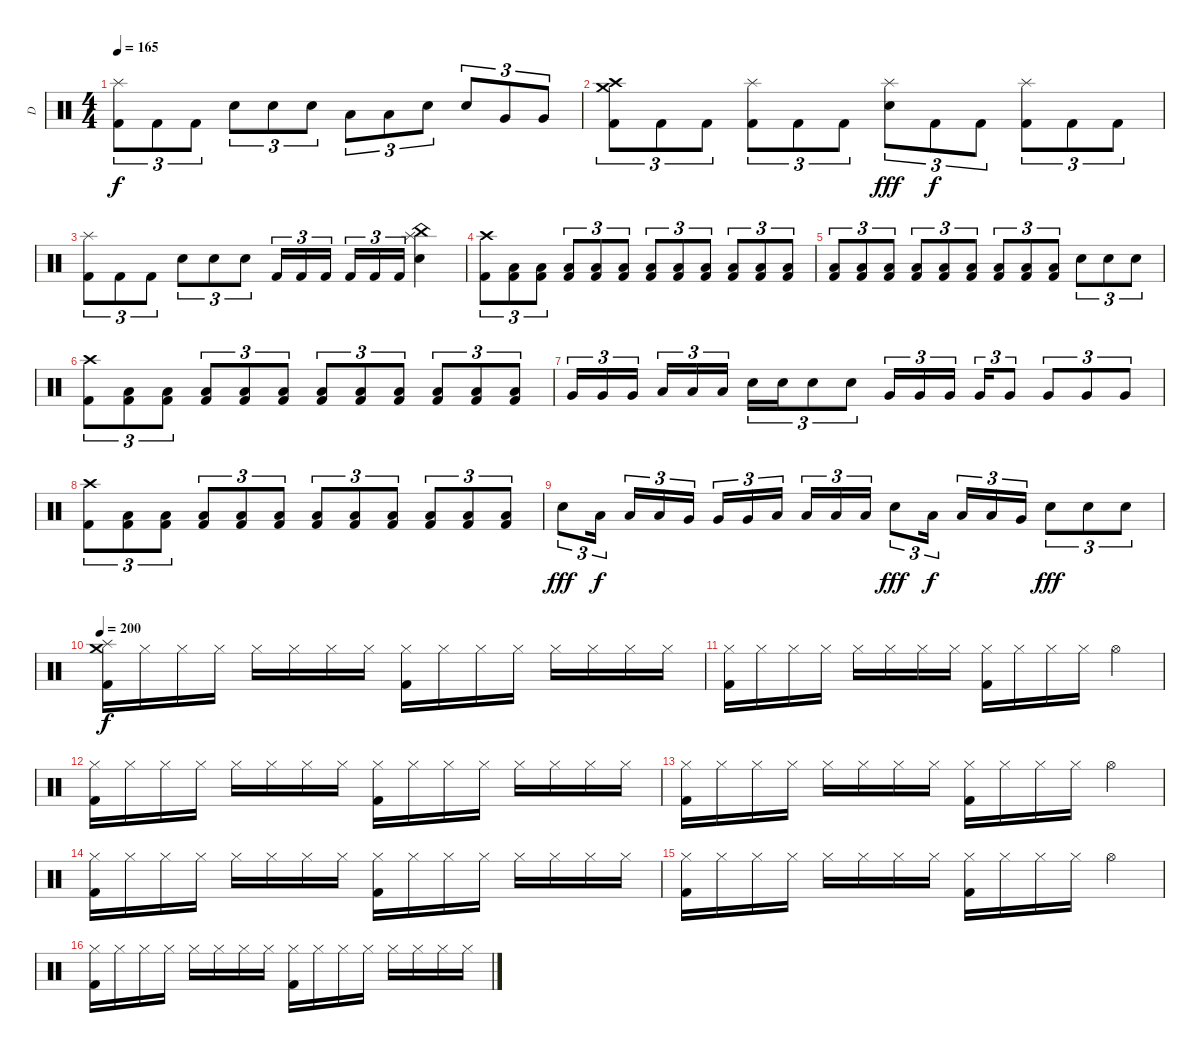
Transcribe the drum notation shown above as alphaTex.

\track ("D" "D") {instrument percussion}
\staff {score}
\articulation defaults
\ts (4 4)
\tempo 165
\clef neutral
\ks c
("Splash (hit)" "Kick (hit) 2").8{tu (3 2) dy f} "Kick (hit) 2".8{tu (3 2)} "Kick (hit) 2".8{tu (3 2)} "Electric Snare (hit)".8{tu (3 2)} "Electric Snare (hit)".8{tu (3 2)} "Electric Snare (hit)".8{tu (3 2)} "Low Tom (hit)".8{tu (3 2)} "Low Tom (hit)".8{tu (3 2)} "Electric Snare (hit)".8{tu (3 2)} "Electric Snare (hit)".8{tu (3 2)} "Very Low Tom (hit)".8{tu (3 2)} "Very Low Tom (hit)".8{tu (3 2)} |
("Crash medium (hit)" "Crash high (hit)" "Kick (hit) 2").8{tu (3 2)} "Kick (hit) 2".8{tu (3 2)} "Kick (hit) 2".8{tu (3 2)} ("Splash (hit)" "Kick (hit) 2").8{tu (3 2)} "Kick (hit) 2".8{tu (3 2)} "Kick (hit) 2".8{tu (3 2)} ("Splash (hit)" "Electric Snare (hit)").8{tu (3 2) dy fff} "Kick (hit) 2".8{tu (3 2) dy f} "Kick (hit) 2".8{tu (3 2)} ("Splash (hit)" "Kick (hit) 2").8{tu (3 2)} "Kick (hit) 2".8{tu (3 2)} "Kick (hit) 2".8{tu (3 2)} |
("Splash (hit)" "Kick (hit) 2").8{tu (3 2)} "Kick (hit) 2".8{tu (3 2)} "Kick (hit) 2".8{tu (3 2)} "Electric Snare (hit)".8{tu (3 2)} "Electric Snare (hit)".8{tu (3 2)} "Electric Snare (hit)".8{tu (3 2)} "Kick (hit) 2".16{tu (3 2)} "Kick (hit) 2".16{tu (3 2)} "Kick (hit) 2".16{tu (3 2)} "Kick (hit) 2".16{tu (3 2)} "Kick (hit) 2".16{tu (3 2)} "Kick (hit) 2".16{tu (3 2)} ("Splash (hit)" "China (hit)" "Electric Snare (hit)").4 |
("Crash high (hit)" "Kick (hit) 2").8{tu (3 2)} ("Low Floor Tom (hit)" "Kick (hit) 2").8{tu (3 2)} ("Low Floor Tom (hit)" "Kick (hit) 2").8{tu (3 2)} ("Low Floor Tom (hit)" "Kick (hit) 2").8{tu (3 2)} ("Low Floor Tom (hit)" "Kick (hit) 2").8{tu (3 2)} ("Low Floor Tom (hit)" "Kick (hit) 2").8{tu (3 2)} ("Low Floor Tom (hit)" "Kick (hit) 2").8{tu (3 2)} ("Low Floor Tom (hit)" "Kick (hit) 2").8{tu (3 2)} ("Low Floor Tom (hit)" "Kick (hit) 2").8{tu (3 2)} ("Low Floor Tom (hit)" "Kick (hit) 2").8{tu (3 2)} ("Low Floor Tom (hit)" "Kick (hit) 2").8{tu (3 2)} ("Low Floor Tom (hit)" "Kick (hit) 2").8{tu (3 2)} |
("Low Floor Tom (hit)" "Kick (hit) 2").8{tu (3 2)} ("Low Floor Tom (hit)" "Kick (hit) 2").8{tu (3 2)} ("Low Floor Tom (hit)" "Kick (hit) 2").8{tu (3 2)} ("Low Floor Tom (hit)" "Kick (hit) 2").8{tu (3 2)} ("Low Floor Tom (hit)" "Kick (hit) 2").8{tu (3 2)} ("Low Floor Tom (hit)" "Kick (hit) 2").8{tu (3 2)} ("Low Floor Tom (hit)" "Kick (hit) 2").8{tu (3 2)} ("Low Floor Tom (hit)" "Kick (hit) 2").8{tu (3 2)} ("Low Floor Tom (hit)" "Kick (hit) 2").8{tu (3 2)} "Electric Snare (hit)".8{tu (3 2)} "Electric Snare (hit)".8{tu (3 2)} "Electric Snare (hit)".8{tu (3 2)} |
("Crash high (hit)" "Kick (hit) 2").8{tu (3 2)} ("Low Floor Tom (hit)" "Kick (hit) 2").8{tu (3 2)} ("Low Floor Tom (hit)" "Kick (hit) 2").8{tu (3 2)} ("Low Floor Tom (hit)" "Kick (hit) 2").8{tu (3 2)} ("Low Floor Tom (hit)" "Kick (hit) 2").8{tu (3 2)} ("Low Floor Tom (hit)" "Kick (hit) 2").8{tu (3 2)} ("Low Floor Tom (hit)" "Kick (hit) 2").8{tu (3 2)} ("Low Floor Tom (hit)" "Kick (hit) 2").8{tu (3 2)} ("Low Floor Tom (hit)" "Kick (hit) 2").8{tu (3 2)} ("Low Floor Tom (hit)" "Kick (hit) 2").8{tu (3 2)} ("Low Floor Tom (hit)" "Kick (hit) 2").8{tu (3 2)} ("Low Floor Tom (hit)" "Kick (hit) 2").8{tu (3 2)} |
"Very Low Tom (hit)".16{tu (3 2)} "Very Low Tom (hit)".16{tu (3 2)} "Very Low Tom (hit)".16{tu (3 2)} "Low Floor Tom (hit)".16{tu (3 2)} "Low Floor Tom (hit)".16{tu (3 2)} "Low Floor Tom (hit)".16{tu (3 2)} "Electric Snare (hit)".16{tu (3 2)} "Electric Snare (hit)".16{tu (3 2)} "Electric Snare (hit)".8{tu (3 2)} "Electric Snare (hit)".8{tu (3 2)} "Very Low Tom (hit)".16{tu (3 2)} "Very Low Tom (hit)".16{tu (3 2)} "Very Low Tom (hit)".16{tu (3 2)} "Very Low Tom (hit)".16{tu (3 2)} "Very Low Tom (hit)".8{tu (3 2)} "Very Low Tom (hit)".8{tu (3 2)} "Very Low Tom (hit)".8{tu (3 2)} "Very Low Tom (hit)".8{tu (3 2)} |
("Crash high (hit)" "Kick (hit) 2").8{tu (3 2)} ("Low Floor Tom (hit)" "Kick (hit) 2").8{tu (3 2)} ("Low Floor Tom (hit)" "Kick (hit) 2").8{tu (3 2)} ("Low Floor Tom (hit)" "Kick (hit) 2").8{tu (3 2)} ("Low Floor Tom (hit)" "Kick (hit) 2").8{tu (3 2)} ("Low Floor Tom (hit)" "Kick (hit) 2").8{tu (3 2)} ("Low Floor Tom (hit)" "Kick (hit) 2").8{tu (3 2)} ("Low Floor Tom (hit)" "Kick (hit) 2").8{tu (3 2)} ("Low Floor Tom (hit)" "Kick (hit) 2").8{tu (3 2)} ("Low Floor Tom (hit)" "Kick (hit) 2").8{tu (3 2)} ("Low Floor Tom (hit)" "Kick (hit) 2").8{tu (3 2)} ("Low Floor Tom (hit)" "Kick (hit) 2").8{tu (3 2)} |
"Electric Snare (hit)".8{tu (3 2) dy fff} "Low Tom (hit)".16{tu (3 2) dy f} "Low Tom (hit)".16{tu (3 2)} "Low Tom (hit)".16{tu (3 2)} "Very Low Tom (hit)".16{tu (3 2)} "Very Low Tom (hit)".16{tu (3 2)} "Very Low Tom (hit)".16{tu (3 2)} "Low Floor Tom (hit)".16{tu (3 2)} "Low Floor Tom (hit)".16{tu (3 2)} "Low Floor Tom (hit)".16{tu (3 2)} "Low Floor Tom (hit)".16{tu (3 2)} "Electric Snare (hit)".8{tu (3 2) dy fff} "Low Tom (hit)".16{tu (3 2) dy f} "Low Tom (hit)".16{tu (3 2)} "Low Tom (hit)".16{tu (3 2)} "Very Low Tom (hit)".16{tu (3 2)} "Electric Snare (hit)".8{tu (3 2) dy fff} "Electric Snare (hit)".8{tu (3 2)} "Electric Snare (hit)".8{tu (3 2)} |
\tempo 200
("Kick (hit) 2" "Crash medium (hit)" "Splash (hit)").16{dy f} "Hi-Hat (closed)".16 "Hi-Hat (closed)".16 "Hi-Hat (closed)".16 "Hi-Hat (closed)".16 "Hi-Hat (closed)".16 "Hi-Hat (closed)".16 "Hi-Hat (closed)".16 ("Kick (hit) 2" "Hi-Hat (closed)").16 "Hi-Hat (closed)".16 "Hi-Hat (closed)".16 "Hi-Hat (closed)".16 "Hi-Hat (closed)".16 "Hi-Hat (closed)".16 "Hi-Hat (closed)".16 "Hi-Hat (closed)".16 |
("Kick (hit) 2" "Hi-Hat (closed)").16 "Hi-Hat (closed)".16 "Hi-Hat (closed)".16 "Hi-Hat (closed)".16 "Hi-Hat (closed)".16 "Hi-Hat (closed)".16 "Hi-Hat (closed)".16 "Hi-Hat (closed)".16 ("Kick (hit) 2" "Hi-Hat (closed)").16 "Hi-Hat (closed)".16 "Hi-Hat (closed)".16 "Hi-Hat (closed)".16 "Hi-Hat (open)".4 |
("Kick (hit) 2" "Hi-Hat (closed)").16 "Hi-Hat (closed)".16 "Hi-Hat (closed)".16 "Hi-Hat (closed)".16 "Hi-Hat (closed)".16 "Hi-Hat (closed)".16 "Hi-Hat (closed)".16 "Hi-Hat (closed)".16 ("Kick (hit) 2" "Hi-Hat (closed)").16 "Hi-Hat (closed)".16 "Hi-Hat (closed)".16 "Hi-Hat (closed)".16 "Hi-Hat (closed)".16 "Hi-Hat (closed)".16 "Hi-Hat (closed)".16 "Hi-Hat (closed)".16 |
("Kick (hit) 2" "Hi-Hat (closed)").16 "Hi-Hat (closed)".16 "Hi-Hat (closed)".16 "Hi-Hat (closed)".16 "Hi-Hat (closed)".16 "Hi-Hat (closed)".16 "Hi-Hat (closed)".16 "Hi-Hat (closed)".16 ("Kick (hit) 2" "Hi-Hat (closed)").16 "Hi-Hat (closed)".16 "Hi-Hat (closed)".16 "Hi-Hat (closed)".16 "Hi-Hat (open)".4 |
("Kick (hit) 2" "Hi-Hat (closed)").16 "Hi-Hat (closed)".16 "Hi-Hat (closed)".16 "Hi-Hat (closed)".16 "Hi-Hat (closed)".16 "Hi-Hat (closed)".16 "Hi-Hat (closed)".16 "Hi-Hat (closed)".16 ("Kick (hit) 2" "Hi-Hat (closed)").16 "Hi-Hat (closed)".16 "Hi-Hat (closed)".16 "Hi-Hat (closed)".16 "Hi-Hat (closed)".16 "Hi-Hat (closed)".16 "Hi-Hat (closed)".16 "Hi-Hat (closed)".16 |
("Kick (hit) 2" "Hi-Hat (closed)").16 "Hi-Hat (closed)".16 "Hi-Hat (closed)".16 "Hi-Hat (closed)".16 "Hi-Hat (closed)".16 "Hi-Hat (closed)".16 "Hi-Hat (closed)".16 "Hi-Hat (closed)".16 ("Kick (hit) 2" "Hi-Hat (closed)").16 "Hi-Hat (closed)".16 "Hi-Hat (closed)".16 "Hi-Hat (closed)".16 "Hi-Hat (open)".4 |
("Kick (hit) 2" "Hi-Hat (closed)").16 "Hi-Hat (closed)".16 "Hi-Hat (closed)".16 "Hi-Hat (closed)".16 "Hi-Hat (closed)".16 "Hi-Hat (closed)".16 "Hi-Hat (closed)".16 "Hi-Hat (closed)".16 ("Kick (hit) 2" "Hi-Hat (closed)").16 "Hi-Hat (closed)".16 "Hi-Hat (closed)".16 "Hi-Hat (closed)".16 "Hi-Hat (closed)".16 "Hi-Hat (closed)".16 "Hi-Hat (closed)".16 "Hi-Hat (closed)".16
